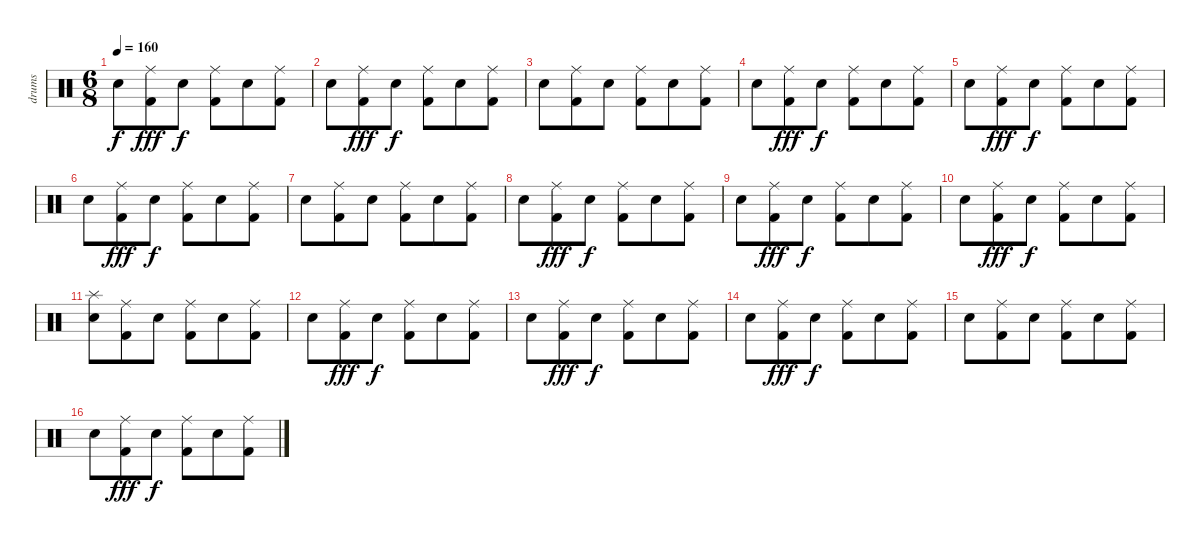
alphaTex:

\track ("drums" "drums") {instrument percussion}
\staff {score}
\articulation defaults
\ts (6 8)
\tempo 160
\clef neutral
\ks c "Electric Snare (hit)".8{dy f}
("Ride (middle)" "Kick (hit) 2").8{dy fff} "Electric Snare (hit)".8{dy f} ("Ride (middle)" "Kick (hit) 2").8 "Electric Snare (hit)".8 ("Ride (middle)" "Kick (hit) 2").8 |
"Electric Snare (hit)".8 ("Ride (middle)" "Kick (hit) 2").8{dy fff} "Electric Snare (hit)".8{dy f} ("Ride (middle)" "Kick (hit) 2").8 "Electric Snare (hit)".8 ("Ride (middle)" "Kick (hit) 2").8 |
"Electric Snare (hit)".8 ("Ride (middle)" "Kick (hit) 2").8 "Electric Snare (hit)".8 ("Ride (middle)" "Kick (hit) 2").8 "Electric Snare (hit)".8 ("Ride (middle)" "Kick (hit) 2").8 |
"Electric Snare (hit)".8 ("Ride (middle)" "Kick (hit) 2").8{dy fff} "Electric Snare (hit)".8{dy f} ("Ride (middle)" "Kick (hit) 2").8 "Electric Snare (hit)".8 ("Ride (middle)" "Kick (hit) 2").8 |
"Electric Snare (hit)".8 ("Ride (middle)" "Kick (hit) 2").8{dy fff} "Electric Snare (hit)".8{dy f} ("Ride (middle)" "Kick (hit) 2").8 "Electric Snare (hit)".8 ("Ride (middle)" "Kick (hit) 2").8 |
"Electric Snare (hit)".8 ("Ride (middle)" "Kick (hit) 2").8{dy fff} "Electric Snare (hit)".8{dy f} ("Ride (middle)" "Kick (hit) 2").8 "Electric Snare (hit)".8 ("Ride (middle)" "Kick (hit) 2").8 |
"Electric Snare (hit)".8 ("Ride (middle)" "Kick (hit) 2").8 "Electric Snare (hit)".8 ("Ride (middle)" "Kick (hit) 2").8 "Electric Snare (hit)".8 ("Ride (middle)" "Kick (hit) 2").8 |
"Electric Snare (hit)".8 ("Ride (middle)" "Kick (hit) 2").8{dy fff} "Electric Snare (hit)".8{dy f} ("Ride (middle)" "Kick (hit) 2").8 "Electric Snare (hit)".8 ("Ride (middle)" "Kick (hit) 2").8 |
"Electric Snare (hit)".8 ("Ride (middle)" "Kick (hit) 2").8{dy fff} "Electric Snare (hit)".8{dy f} ("Ride (middle)" "Kick (hit) 2").8 "Electric Snare (hit)".8 ("Ride (middle)" "Kick (hit) 2").8 |
"Electric Snare (hit)".8 ("Ride (middle)" "Kick (hit) 2").8{dy fff} "Electric Snare (hit)".8{dy f} ("Ride (middle)" "Kick (hit) 2").8 "Electric Snare (hit)".8 ("Ride (middle)" "Kick (hit) 2").8 |
("Splash (hit)" "Electric Snare (hit)").8 ("Ride (middle)" "Kick (hit) 2").8 "Electric Snare (hit)".8 ("Ride (middle)" "Kick (hit) 2").8 "Electric Snare (hit)".8 ("Ride (middle)" "Kick (hit) 2").8 |
"Electric Snare (hit)".8 ("Ride (middle)" "Kick (hit) 2").8{dy fff} "Electric Snare (hit)".8{dy f} ("Ride (middle)" "Kick (hit) 2").8 "Electric Snare (hit)".8 ("Ride (middle)" "Kick (hit) 2").8 |
"Electric Snare (hit)".8 ("Ride (middle)" "Kick (hit) 2").8{dy fff} "Electric Snare (hit)".8{dy f} ("Ride (middle)" "Kick (hit) 2").8 "Electric Snare (hit)".8 ("Ride (middle)" "Kick (hit) 2").8 |
"Electric Snare (hit)".8 ("Ride (middle)" "Kick (hit) 2").8{dy fff} "Electric Snare (hit)".8{dy f} ("Ride (middle)" "Kick (hit) 2").8 "Electric Snare (hit)".8 ("Ride (middle)" "Kick (hit) 2").8 |
"Electric Snare (hit)".8 ("Ride (middle)" "Kick (hit) 2").8 "Electric Snare (hit)".8 ("Ride (middle)" "Kick (hit) 2").8 "Electric Snare (hit)".8 ("Ride (middle)" "Kick (hit) 2").8 |
"Electric Snare (hit)".8 ("Ride (middle)" "Kick (hit) 2").8{dy fff} "Electric Snare (hit)".8{dy f} ("Ride (middle)" "Kick (hit) 2").8 "Electric Snare (hit)".8 ("Ride (middle)" "Kick (hit) 2").8
